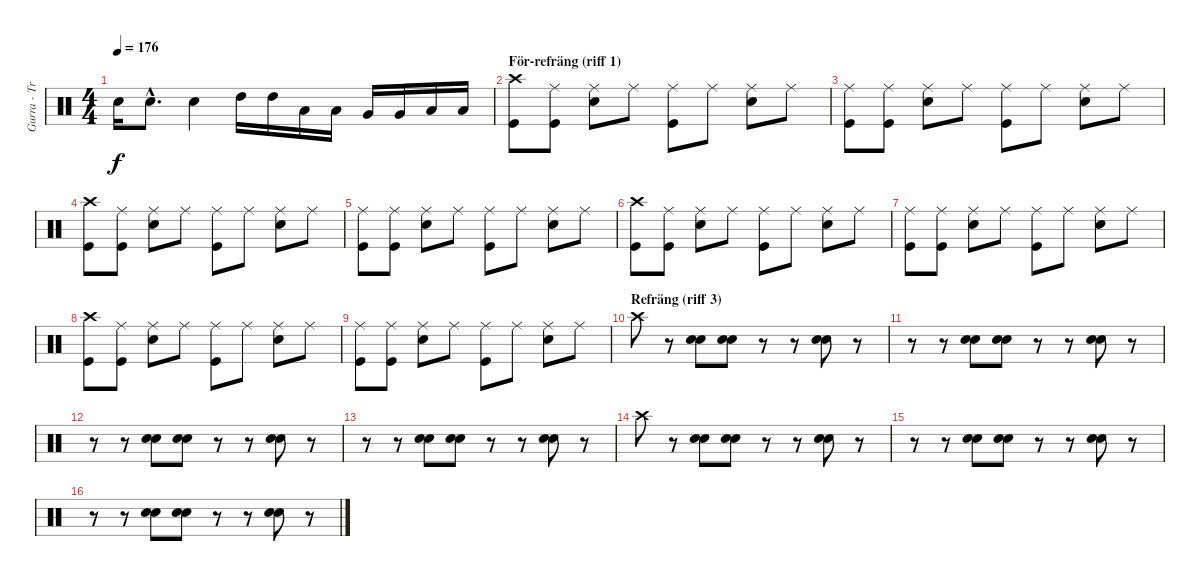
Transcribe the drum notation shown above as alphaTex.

\track ("Gurra - Trummor" "Gurra - Tr") {instrument percussion}
\staff {score}
\articulation defaults
\ts (4 4)
\tempo 176
\clef neutral
\ks c "Electric Snare (hit)".16{dy f} "Electric Snare (hit)"{hac}.8{d} "Electric Snare (hit)".4 "High Tom (hit)".16 "High Tom (hit)".16 "Low Tom (hit)".16 "Low Tom (hit)".16 "Very Low Tom (hit)".16 "Very Low Tom (hit)".16 "Low Floor Tom (hit)".16 "Low Floor Tom (hit)".16
|
\section ("" "För-refräng (riff 1)")
("Crash high (hit)" "Kick (hit)").8 ("Ride (middle)" "Kick (hit)").8 ("Ride (middle)" "Electric Snare (hit)").8 "Ride (middle)".8 ("Ride (middle)" "Kick (hit)").8 "Ride (middle)".8 ("Ride (middle)" "Electric Snare (hit)").8 "Ride (middle)".8 |
("Ride (middle)" "Kick (hit)").8 ("Ride (middle)" "Kick (hit)").8 ("Ride (middle)" "Electric Snare (hit)").8 "Ride (middle)".8 ("Ride (middle)" "Kick (hit)").8 "Ride (middle)".8 ("Ride (middle)" "Electric Snare (hit)").8 "Ride (middle)".8 |
("Crash high (hit)" "Kick (hit)").8 ("Ride (middle)" "Kick (hit)").8 ("Ride (middle)" "Electric Snare (hit)").8 "Ride (middle)".8 ("Ride (middle)" "Kick (hit)").8 "Ride (middle)".8 ("Ride (middle)" "Electric Snare (hit)").8 "Ride (middle)".8 |
("Ride (middle)" "Kick (hit)").8 ("Ride (middle)" "Kick (hit)").8 ("Ride (middle)" "Electric Snare (hit)").8 "Ride (middle)".8 ("Ride (middle)" "Kick (hit)").8 "Ride (middle)".8 ("Ride (middle)" "Electric Snare (hit)").8 "Ride (middle)".8 |
("Crash high (hit)" "Kick (hit)").8 ("Ride (middle)" "Kick (hit)").8 ("Ride (middle)" "Electric Snare (hit)").8 "Ride (middle)".8 ("Ride (middle)" "Kick (hit)").8 "Ride (middle)".8 ("Ride (middle)" "Electric Snare (hit)").8 "Ride (middle)".8 |
("Ride (middle)" "Kick (hit)").8 ("Ride (middle)" "Kick (hit)").8 ("Ride (middle)" "Electric Snare (hit)").8 "Ride (middle)".8 ("Ride (middle)" "Kick (hit)").8 "Ride (middle)".8 ("Ride (middle)" "Electric Snare (hit)").8 "Ride (middle)".8 |
("Crash high (hit)" "Kick (hit)").8 ("Ride (middle)" "Kick (hit)").8 ("Ride (middle)" "Electric Snare (hit)").8 "Ride (middle)".8 ("Ride (middle)" "Kick (hit)").8 "Ride (middle)".8 ("Ride (middle)" "Electric Snare (hit)").8 "Ride (middle)".8 |
("Ride (middle)" "Kick (hit)").8 ("Ride (middle)" "Kick (hit)").8 ("Ride (middle)" "Electric Snare (hit)").8 "Ride (middle)".8 ("Ride (middle)" "Kick (hit)").8 "Ride (middle)".8 ("Ride (middle)" "Electric Snare (hit)").8 "Ride (middle)".8 |
\section ("" "Refräng (riff 3)")
"Crash high (hit)".8 r.8 ("Electric Snare (hit)" "Electric Snare (hit)").8 ("Electric Snare (hit)" "Electric Snare (hit)").8 r.8 r.8 ("Electric Snare (hit)" "Electric Snare (hit)").8 r.8 |
r.8 r.8 ("Electric Snare (hit)" "Electric Snare (hit)").8 ("Electric Snare (hit)" "Electric Snare (hit)").8 r.8 r.8 ("Electric Snare (hit)" "Electric Snare (hit)").8 r.8 |
r.8 r.8 ("Electric Snare (hit)" "Electric Snare (hit)").8 ("Electric Snare (hit)" "Electric Snare (hit)").8 r.8 r.8 ("Electric Snare (hit)" "Electric Snare (hit)").8 r.8 |
r.8 r.8 ("Electric Snare (hit)" "Electric Snare (hit)").8 ("Electric Snare (hit)" "Electric Snare (hit)").8 r.8 r.8 ("Electric Snare (hit)" "Electric Snare (hit)").8 r.8 |
"Crash high (hit)".8 r.8 ("Electric Snare (hit)" "Electric Snare (hit)").8 ("Electric Snare (hit)" "Electric Snare (hit)").8 r.8 r.8 ("Electric Snare (hit)" "Electric Snare (hit)").8 r.8 |
r.8 r.8 ("Electric Snare (hit)" "Electric Snare (hit)").8 ("Electric Snare (hit)" "Electric Snare (hit)").8 r.8 r.8 ("Electric Snare (hit)" "Electric Snare (hit)").8 r.8 |
r.8 r.8 ("Electric Snare (hit)" "Electric Snare (hit)").8 ("Electric Snare (hit)" "Electric Snare (hit)").8 r.8 r.8 ("Electric Snare (hit)" "Electric Snare (hit)").8 r.8
